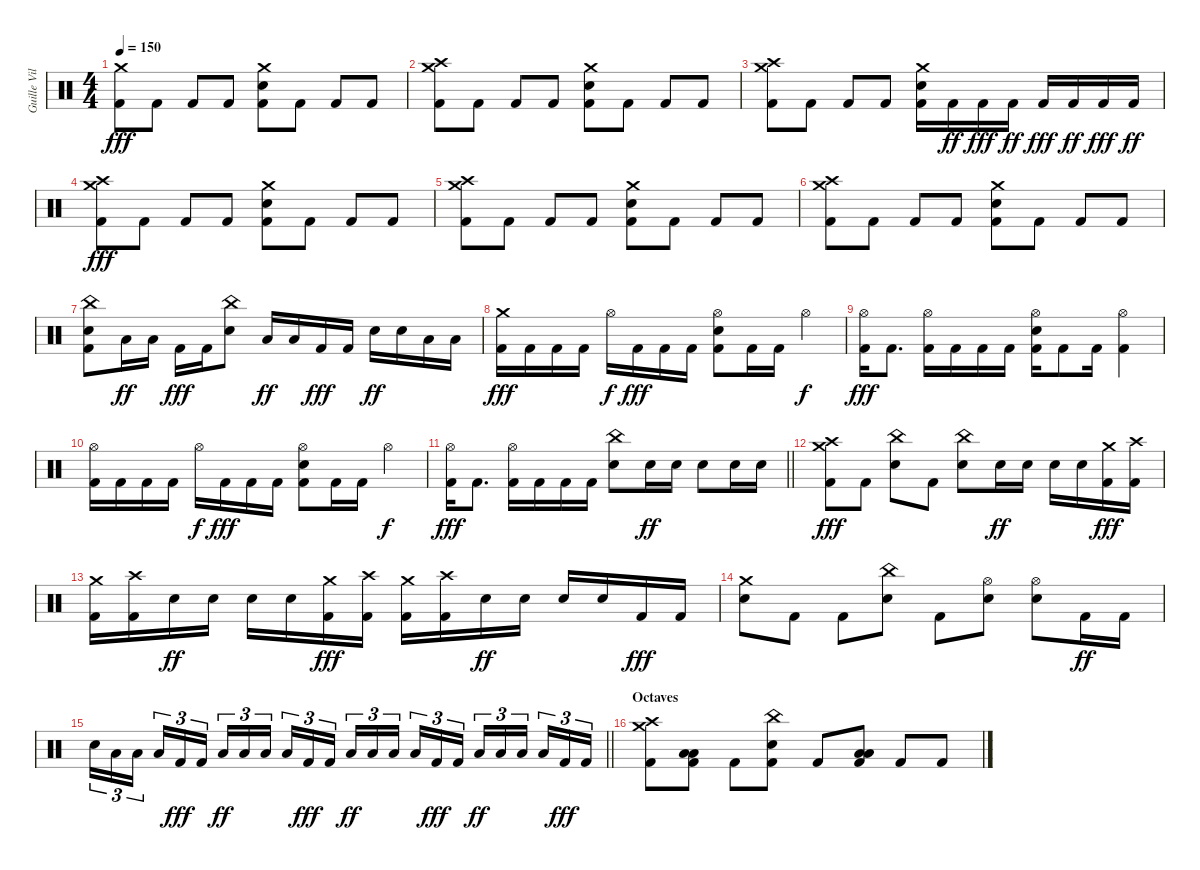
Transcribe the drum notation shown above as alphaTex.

\track ("Guille Vila" "Guille Vil") {instrument percussion}
\staff {score}
\articulation defaults
\ts (4 4)
\tempo 150
\clef neutral
\ks c
("Crash medium (hit)" "Kick (hit) 2").8{dy fff} "Kick (hit) 2".8 "Kick (hit) 2".8 "Kick (hit) 2".8 ("Crash medium (hit)" "Snare (hit) 2" "Kick (hit) 2").8 "Kick (hit) 2".8 "Kick (hit) 2".8 "Kick (hit) 2".8 |
("Crash high (hit)" "Crash medium (hit)" "Kick (hit) 2").8 "Kick (hit) 2".8 "Kick (hit) 2".8 "Kick (hit) 2".8 ("Crash medium (hit)" "Snare (hit) 2" "Kick (hit) 2").8 "Kick (hit) 2".8 "Kick (hit) 2".8 "Kick (hit) 2".8 |
("Crash high (hit)" "Crash medium (hit)" "Kick (hit) 2").8 "Kick (hit) 2".8 "Kick (hit) 2".8 "Kick (hit) 2".8 ("Crash medium (hit)" "Snare (hit) 2" "Kick (hit) 2").16 "Kick (hit) 2".16{dy ff} "Kick (hit) 2".16{dy fff} "Kick (hit) 2".16{dy ff} "Kick (hit) 2".16{dy fff} "Kick (hit) 2".16{dy ff} "Kick (hit) 2".16{dy fff} "Kick (hit) 2".16{dy ff} |
("Crash high (hit)" "Crash medium (hit)" "Kick (hit) 2").8{dy fff} "Kick (hit) 2".8 "Kick (hit) 2".8 "Kick (hit) 2".8 ("Crash medium (hit)" "Snare (hit) 2" "Kick (hit) 2").8 "Kick (hit) 2".8 "Kick (hit) 2".8 "Kick (hit) 2".8 |
("Crash high (hit)" "Crash medium (hit)" "Kick (hit) 2").8 "Kick (hit) 2".8 "Kick (hit) 2".8 "Kick (hit) 2".8 ("Crash medium (hit)" "Snare (hit) 2" "Kick (hit) 2").8 "Kick (hit) 2".8 "Kick (hit) 2".8 "Kick (hit) 2".8 |
("Crash high (hit)" "Crash medium (hit)" "Kick (hit) 2").8 "Kick (hit) 2".8 "Kick (hit) 2".8 "Kick (hit) 2".8 ("Crash medium (hit)" "Snare (hit) 2" "Kick (hit) 2").8 "Kick (hit) 2".8 "Kick (hit) 2".8 "Kick (hit) 2".8 |
("China (hit)" "Snare (hit) 2" "Kick (hit) 2").8 "Low Floor Tom (hit)".16{dy ff} "Low Tom (hit)".16 "Kick (hit) 2".16{dy fff} "Kick (hit) 2".16 ("China (hit)" "Snare (hit) 2").8 "Low Floor Tom (hit)".16{dy ff} "Low Tom (hit)".16 "Kick (hit) 2".16{dy fff} "Kick (hit) 2".16 "Snare (hit) 2".16{dy ff} "Snare (hit) 2".16 "Low Tom (hit)".16 "Low Tom (hit)".16 |
("Crash medium (hit)" "Kick (hit) 2").16{dy fff} "Kick (hit) 2".16 "Kick (hit) 2".16 "Kick (hit) 2".16 "Hi-Hat (open)".16{dy f} "Kick (hit) 2".16{dy fff} "Kick (hit) 2".16 "Kick (hit) 2".16 ("Hi-Hat (open)" "Snare (hit) 2" "Kick (hit) 2").8 "Kick (hit) 2".16 "Kick (hit) 2".16 "Hi-Hat (open)".4{dy f} |
("Hi-Hat (open)" "Kick (hit) 2").16{dy fff} "Kick (hit) 2".8{d} ("Hi-Hat (open)" "Kick (hit) 2").16 "Kick (hit) 2".16 "Kick (hit) 2".16 "Kick (hit) 2".16 ("Hi-Hat (open)" "Snare (hit) 2" "Kick (hit) 2").16 "Kick (hit) 2".8 "Kick (hit) 2".16 ("Hi-Hat (open)" "Kick (hit) 2").4 |
("Hi-Hat (open)" "Kick (hit) 2").16 "Kick (hit) 2".16 "Kick (hit) 2".16 "Kick (hit) 2".16 "Hi-Hat (open)".16{dy f} "Kick (hit) 2".16{dy fff} "Kick (hit) 2".16 "Kick (hit) 2".16 ("Hi-Hat (open)" "Snare (hit) 2" "Kick (hit) 2").8 "Kick (hit) 2".16 "Kick (hit) 2".16 "Hi-Hat (open)".4{dy f} |
\barLineRight lightlight
("Hi-Hat (open)" "Kick (hit) 2").16{dy fff} "Kick (hit) 2".8{d} ("Hi-Hat (open)" "Kick (hit) 2").16 "Kick (hit) 2".16 "Kick (hit) 2".16 "Kick (hit) 2".16 ("China (hit)" "Snare (hit) 2").8 "Snare (hit) 2".16{dy ff} "Snare (hit) 2".16 "Snare (hit) 2".8 "Snare (hit) 2".16 "Snare (hit) 2".16 |
("Crash medium (hit)" "Crash high (hit)" "Kick (hit) 2").8{dy fff volume 16} "Kick (hit) 2".8 ("China (hit)" "Snare (hit) 2").8 "Kick (hit) 2".8 ("China (hit)" "Snare (hit) 2").8 "Snare (hit) 2".16{dy ff} "Snare (hit) 2".16 "Snare (hit) 2".16 "Snare (hit) 2".16 ("Crash medium (hit)" "Kick (hit) 2").16{dy fff} ("Crash high (hit)" "Kick (hit) 2").16 |
("Crash medium (hit)" "Kick (hit) 2").16 ("Crash high (hit)" "Kick (hit) 2").16 "Snare (hit) 2".16{dy ff} "Snare (hit) 2".16 "Snare (hit) 2".16 "Snare (hit) 2".16 ("Crash medium (hit)" "Kick (hit) 2").16{dy fff} ("Crash high (hit)" "Kick (hit) 2").16 ("Crash medium (hit)" "Kick (hit) 2").16 ("Crash high (hit)" "Kick (hit) 2").16 "Snare (hit) 2".16{dy ff} "Snare (hit) 2".16 "Snare (hit) 2".16 "Snare (hit) 2".16 "Kick (hit) 2".16{dy fff} "Kick (hit) 2".16 |
("Crash medium (hit)" "Snare (hit) 2").8 "Kick (hit) 2".8 "Kick (hit) 2".8 ("China (hit)" "Snare (hit) 2").8 "Kick (hit) 2".8 ("Hi-Hat (open)" "Snare (hit) 2").8 ("Hi-Hat (open)" "Snare (hit) 2").8 "Kick (hit) 2".16{dy ff} "Kick (hit) 2".16 |
\barLineRight lightlight "Snare (hit) 2".16{tu (3 2)} "Low Tom (hit)".16{tu (3 2)} "Low Floor Tom (hit)".16{tu (3 2) beam splitsecondary} "Low Tom (hit)".16{tu (3 2)} "Kick (hit) 2".16{tu (3 2) dy fff} "Kick (hit) 2".16{tu (3 2)} "Low Floor Tom (hit)".16{tu (3 2) dy ff} "Low Tom (hit)".16{tu (3 2)} "Low Floor Tom (hit)".16{tu (3 2) beam splitsecondary} "Low Tom (hit)".16{tu (3 2)} "Kick (hit) 2".16{tu (3 2) dy fff} "Kick (hit) 2".16{tu (3 2)} "Low Floor Tom (hit)".16{tu (3 2) dy ff} "Low Tom (hit)".16{tu (3 2)} "Low Floor Tom (hit)".16{tu (3 2) beam splitsecondary} "Low Tom (hit)".16{tu (3 2)} "Kick (hit) 2".16{tu (3 2) dy fff} "Kick (hit) 2".16{tu (3 2)} "Low Tom (hit)".16{tu (3 2) dy ff} "Low Tom (hit)".16{tu (3 2)} "Low Tom (hit)".16{tu (3 2) beam splitsecondary} "Low Tom (hit)".16{tu (3 2)} "Kick (hit) 2".16{tu (3 2) dy fff} "Kick (hit) 2".16{tu (3 2)}
|
\section ("" "Octaves")
("Crash medium (hit)" "Crash high (hit)" "Kick (hit) 2").8 ("Low Tom (hit)" "Low Tom (hit)" "Kick (hit) 2").8 "Kick (hit) 2".8 ("China (hit)" "Snare (hit) 2" "Kick (hit) 2").8 "Kick (hit) 2".8 ("Low Floor Tom (hit)" "Low Tom (hit)" "Kick (hit) 2").8 "Kick (hit) 2".8 "Kick (hit) 2".8
